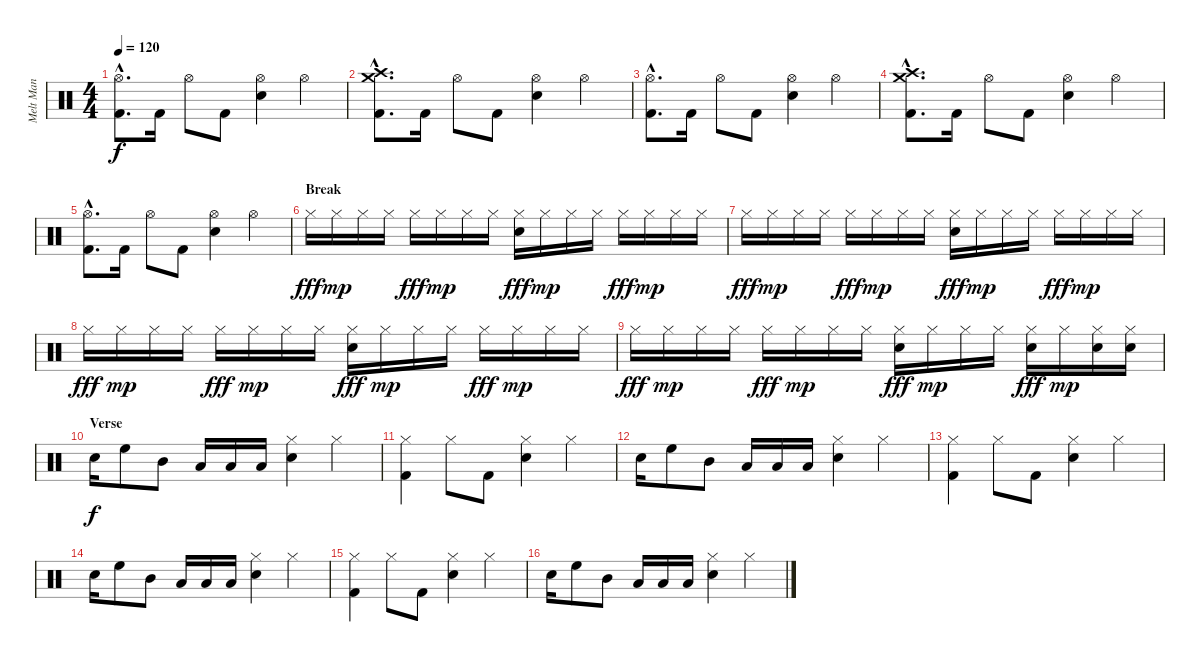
\track ("Melt Man" "Melt Man") {instrument percussion}
\staff {score}
\articulation defaults
\ts (4 4)
\tempo 120
\clef neutral
\ks c
("Hi-Hat (open)"{hac} "Kick (hit) 2"{hac}).8{d dy f} "Kick (hit) 2".16 "Hi-Hat (open)".8 "Kick (hit) 2".8 ("Hi-Hat (open)" "Snare (hit) 2").4 "Hi-Hat (open)".4 |
("Crash medium (hit)"{hac} "Crash high (hit)"{hac} "Kick (hit) 2"{hac}).8{d} "Kick (hit) 2".16 "Hi-Hat (open)".8 "Kick (hit) 2".8 ("Hi-Hat (open)" "Snare (hit) 2").4 "Hi-Hat (open)".4 |
("Hi-Hat (open)"{hac} "Kick (hit) 2"{hac}).8{d} "Kick (hit) 2".16 "Hi-Hat (open)".8 "Kick (hit) 2".8 ("Hi-Hat (open)" "Snare (hit) 2").4 "Hi-Hat (open)".4 |
("Crash medium (hit)"{hac} "Crash high (hit)"{hac} "Kick (hit) 2"{hac}).8{d} "Kick (hit) 2".16 "Hi-Hat (open)".8 "Kick (hit) 2".8 ("Hi-Hat (open)" "Snare (hit) 2").4 "Hi-Hat (open)".4 |
("Hi-Hat (open)"{hac} "Kick (hit) 2"{hac}).8{d} "Kick (hit) 2".16 "Hi-Hat (open)".8 "Kick (hit) 2".8 ("Hi-Hat (open)" "Snare (hit) 2").4 "Hi-Hat (open)".4 |
\section ("" "Break")
"Hi-Hat (closed)".16{dy fff} "Hi-Hat (closed)".16{dy mp} "Hi-Hat (closed)".16 "Hi-Hat (closed)".16 "Hi-Hat (closed)".16{dy fff} "Hi-Hat (closed)".16{dy mp} "Hi-Hat (closed)".16 "Hi-Hat (closed)".16 ("Hi-Hat (closed)" "Snare (hit) 2").16{dy fff} "Hi-Hat (closed)".16{dy mp} "Hi-Hat (closed)".16 "Hi-Hat (closed)".16 "Hi-Hat (closed)".16{dy fff} "Hi-Hat (closed)".16{dy mp} "Hi-Hat (closed)".16 "Hi-Hat (closed)".16 |
"Hi-Hat (closed)".16{dy fff} "Hi-Hat (closed)".16{dy mp} "Hi-Hat (closed)".16 "Hi-Hat (closed)".16 "Hi-Hat (closed)".16{dy fff} "Hi-Hat (closed)".16{dy mp} "Hi-Hat (closed)".16 "Hi-Hat (closed)".16 ("Hi-Hat (closed)" "Snare (hit) 2").16{dy fff} "Hi-Hat (closed)".16{dy mp} "Hi-Hat (closed)".16 "Hi-Hat (closed)".16 "Hi-Hat (closed)".16{dy fff} "Hi-Hat (closed)".16{dy mp} "Hi-Hat (closed)".16 "Hi-Hat (closed)".16 |
"Hi-Hat (closed)".16{dy fff} "Hi-Hat (closed)".16{dy mp} "Hi-Hat (closed)".16 "Hi-Hat (closed)".16 "Hi-Hat (closed)".16{dy fff} "Hi-Hat (closed)".16{dy mp} "Hi-Hat (closed)".16 "Hi-Hat (closed)".16 ("Hi-Hat (closed)" "Snare (hit) 2").16{dy fff} "Hi-Hat (closed)".16{dy mp} "Hi-Hat (closed)".16 "Hi-Hat (closed)".16 "Hi-Hat (closed)".16{dy fff} "Hi-Hat (closed)".16{dy mp} "Hi-Hat (closed)".16 "Hi-Hat (closed)".16 |
"Hi-Hat (closed)".16{dy fff} "Hi-Hat (closed)".16{dy mp} "Hi-Hat (closed)".16 "Hi-Hat (closed)".16 "Hi-Hat (closed)".16{dy fff} "Hi-Hat (closed)".16{dy mp} "Hi-Hat (closed)".16 "Hi-Hat (closed)".16 ("Hi-Hat (closed)" "Snare (hit) 2").16{dy fff} "Hi-Hat (closed)".16{dy mp} "Hi-Hat (closed)".16 "Hi-Hat (closed)".16 ("Hi-Hat (closed)" "Snare (hit) 2").16{dy fff} "Hi-Hat (closed)".16{dy mp} ("Hi-Hat (closed)" "Snare (hit) 2").16 ("Hi-Hat (closed)" "Snare (hit) 2").16 |
\section ("" "Verse")
"Snare (hit) 2".16{dy f volume 16} "High Floor Tom (hit)".8 "Mid Tom (hit)".8 "Low Tom (hit)".16 "Low Tom (hit)".16 "Low Tom (hit)".16 ("Hi-Hat (closed)" "Snare (hit) 2").4 "Hi-Hat (closed)".4 |
("Hi-Hat (closed)" "Kick (hit) 2").4 "Hi-Hat (closed)".8 "Kick (hit) 2".8 ("Hi-Hat (closed)" "Snare (hit) 2").4 "Hi-Hat (closed)".4 |
"Snare (hit) 2".16 "High Floor Tom (hit)".8 "Mid Tom (hit)".8 "Low Tom (hit)".16 "Low Tom (hit)".16 "Low Tom (hit)".16 ("Hi-Hat (closed)" "Snare (hit) 2").4 "Hi-Hat (closed)".4 |
("Hi-Hat (closed)" "Kick (hit) 2").4 "Hi-Hat (closed)".8 "Kick (hit) 2".8 ("Hi-Hat (closed)" "Snare (hit) 2").4 "Hi-Hat (closed)".4 |
"Snare (hit) 2".16 "High Floor Tom (hit)".8 "Mid Tom (hit)".8 "Low Tom (hit)".16 "Low Tom (hit)".16 "Low Tom (hit)".16 ("Hi-Hat (closed)" "Snare (hit) 2").4 "Hi-Hat (closed)".4 |
("Hi-Hat (closed)" "Kick (hit) 2").4 "Hi-Hat (closed)".8 "Kick (hit) 2".8 ("Hi-Hat (closed)" "Snare (hit) 2").4 "Hi-Hat (closed)".4 |
"Snare (hit) 2".16 "High Floor Tom (hit)".8 "Mid Tom (hit)".8 "Low Tom (hit)".16 "Low Tom (hit)".16 "Low Tom (hit)".16 ("Hi-Hat (closed)" "Snare (hit) 2").4 "Hi-Hat (closed)".4
